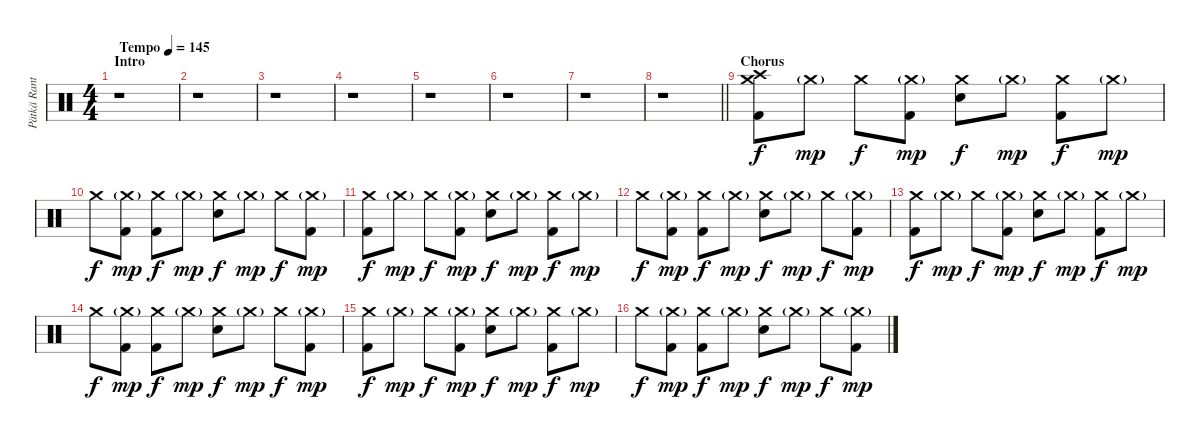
\track ("Pätkä Rantala (Drums)" "Pätkä Rant") {instrument percussion}
\staff {score}
\articulation defaults
\ts (4 4)
\section ("" "Intro")
\tempo (145 "Tempo")
\clef neutral
\ks c
r.1{dy f} |
r.1 |
r.1 |
r.1 |
r.1 |
r.1 |
r.1 |
\barLineRight lightlight
r.1 |
\section ("" "Chorus")
("Crash high (hit)" "Crash medium (hit)" "Kick (hit) 2").8 "Crash medium (hit)"{g}.8{dy mp} "Crash medium (hit)".8{dy f} ("Crash medium (hit)"{g} "Kick (hit) 2").8{dy mp} ("Crash medium (hit)" "Snare (hit) 2").8{dy f} "Crash medium (hit)"{g}.8{dy mp} ("Crash medium (hit)" "Kick (hit) 2").8{dy f} "Crash medium (hit)"{g}.8{dy mp} |
"Crash medium (hit)".8{dy f} ("Crash medium (hit)"{g} "Kick (hit) 2").8{dy mp} ("Crash medium (hit)" "Kick (hit) 2").8{dy f} "Crash medium (hit)"{g}.8{dy mp} ("Crash medium (hit)" "Snare (hit) 2").8{dy f} "Crash medium (hit)"{g}.8{dy mp} "Crash medium (hit)".8{dy f} ("Crash medium (hit)"{g} "Kick (hit) 2").8{dy mp} |
("Crash medium (hit)" "Kick (hit) 2").8{dy f} "Crash medium (hit)"{g}.8{dy mp} "Crash medium (hit)".8{dy f} ("Crash medium (hit)"{g} "Kick (hit) 2").8{dy mp} ("Crash medium (hit)" "Snare (hit) 2").8{dy f} "Crash medium (hit)"{g}.8{dy mp} ("Crash medium (hit)" "Kick (hit) 2").8{dy f} "Crash medium (hit)"{g}.8{dy mp} |
"Crash medium (hit)".8{dy f} ("Crash medium (hit)"{g} "Kick (hit) 2").8{dy mp} ("Crash medium (hit)" "Kick (hit) 2").8{dy f} "Crash medium (hit)"{g}.8{dy mp} ("Crash medium (hit)" "Snare (hit) 2").8{dy f} "Crash medium (hit)"{g}.8{dy mp} "Crash medium (hit)".8{dy f} ("Crash medium (hit)"{g} "Kick (hit) 2").8{dy mp} |
("Crash medium (hit)" "Kick (hit) 2").8{dy f} "Crash medium (hit)"{g}.8{dy mp} "Crash medium (hit)".8{dy f} ("Crash medium (hit)"{g} "Kick (hit) 2").8{dy mp} ("Crash medium (hit)" "Snare (hit) 2").8{dy f} "Crash medium (hit)"{g}.8{dy mp} ("Crash medium (hit)" "Kick (hit) 2").8{dy f} "Crash medium (hit)"{g}.8{dy mp} |
"Crash medium (hit)".8{dy f} ("Crash medium (hit)"{g} "Kick (hit) 2").8{dy mp} ("Crash medium (hit)" "Kick (hit) 2").8{dy f} "Crash medium (hit)"{g}.8{dy mp} ("Crash medium (hit)" "Snare (hit) 2").8{dy f} "Crash medium (hit)"{g}.8{dy mp} "Crash medium (hit)".8{dy f} ("Crash medium (hit)"{g} "Kick (hit) 2").8{dy mp} |
("Crash medium (hit)" "Kick (hit) 2").8{dy f} "Crash medium (hit)"{g}.8{dy mp} "Crash medium (hit)".8{dy f} ("Crash medium (hit)"{g} "Kick (hit) 2").8{dy mp} ("Crash medium (hit)" "Snare (hit) 2").8{dy f} "Crash medium (hit)"{g}.8{dy mp} ("Crash medium (hit)" "Kick (hit) 2").8{dy f} "Crash medium (hit)"{g}.8{dy mp} |
"Crash medium (hit)".8{dy f} ("Crash medium (hit)"{g} "Kick (hit) 2").8{dy mp} ("Crash medium (hit)" "Kick (hit) 2").8{dy f} "Crash medium (hit)"{g}.8{dy mp} ("Crash medium (hit)" "Snare (hit) 2").8{dy f} "Crash medium (hit)"{g}.8{dy mp} "Crash medium (hit)".8{dy f} ("Crash medium (hit)"{g} "Kick (hit) 2").8{dy mp}
